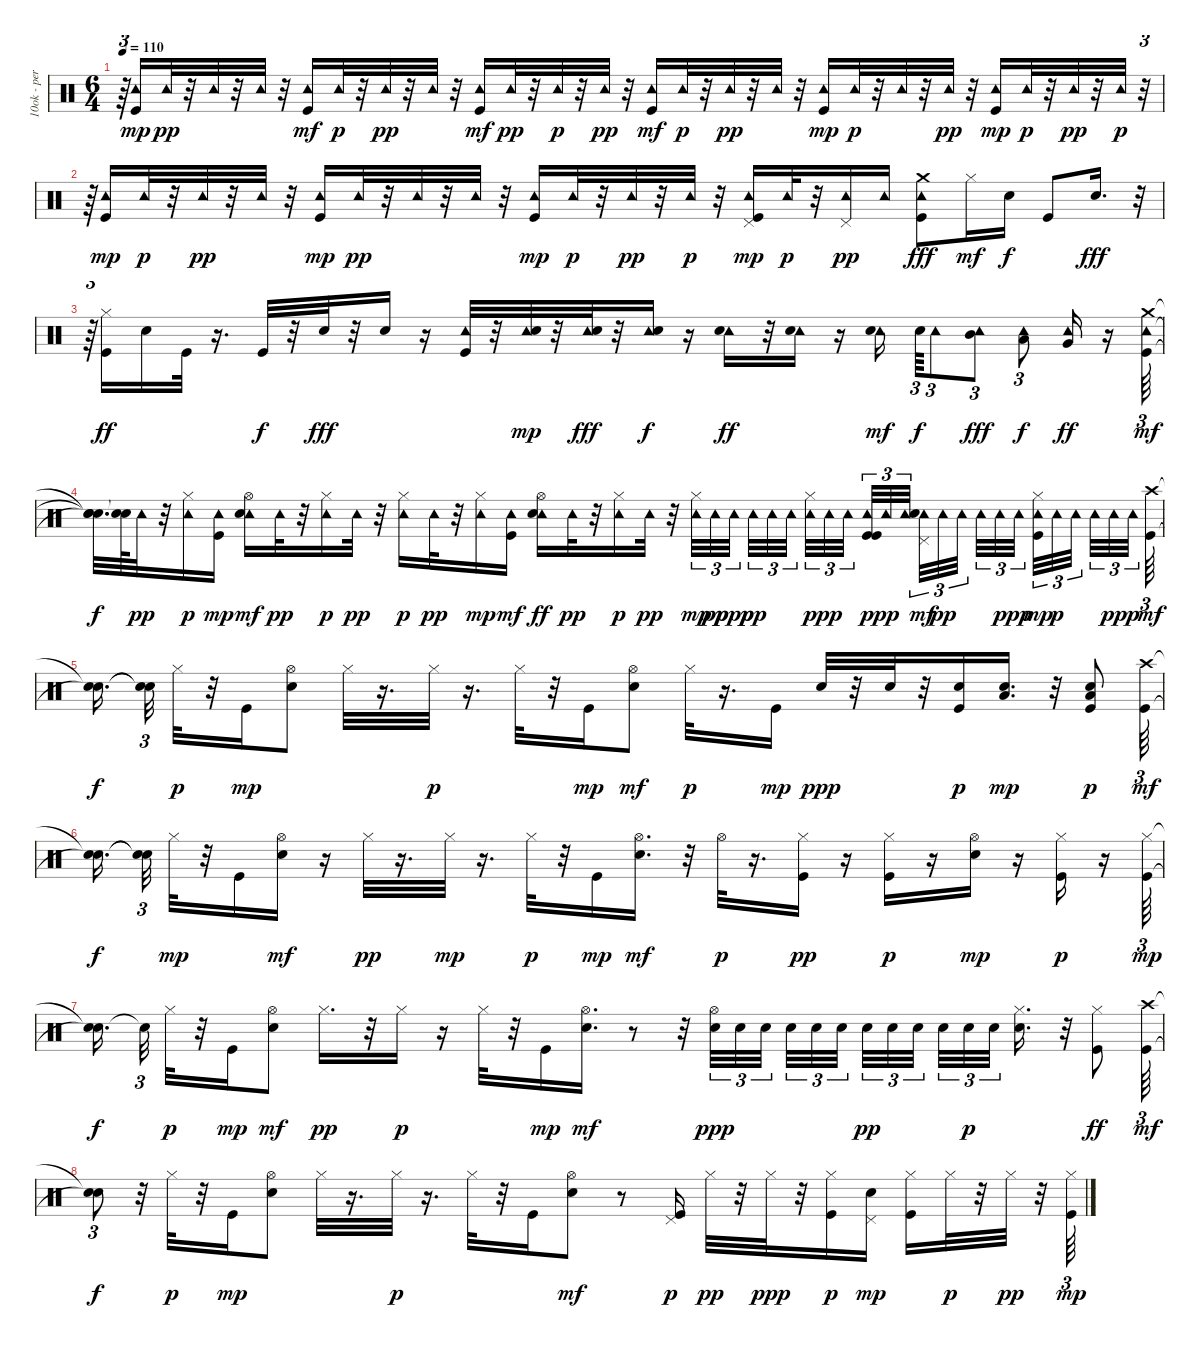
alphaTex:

\track ("10ok - percussioni" "10ok - per") {instrument percussion}
\staff {score}
\articulation defaults
\ts (6 4)
\tempo 110
\clef neutral
\ks c
r.64{tu (3 2) dy pp} ("Tambourine (hit)" "Kick (hit)").16{dy mp} "Tambourine (hit)".32{dy pp} r.32 "Tambourine (hit)".32 r.32 "Tambourine (hit)".32 r.32 ("Tambourine (hit)" "Kick (hit)").16{dy mf} "Tambourine (hit)".32{dy p} r.32 "Tambourine (hit)".32{dy pp} r.32 "Tambourine (hit)".32 r.32 ("Tambourine (hit)" "Kick (hit)").16{dy mf} "Tambourine (hit)".32{dy pp} r.32 "Tambourine (hit)".32{dy p} r.32 "Tambourine (hit)".32{dy pp} r.32 ("Tambourine (hit)" "Kick (hit)").16{dy mf} "Tambourine (hit)".32{dy p} r.32 "Tambourine (hit)".32{dy pp} r.32 "Tambourine (hit)".32 r.32 ("Tambourine (hit)" "Kick (hit)").16{dy mp} "Tambourine (hit)".32{dy p} r.32 "Tambourine (hit)".32 r.32 "Tambourine (hit)".32{dy pp} r.32 ("Tambourine (hit)" "Kick (hit)").16{dy mp} "Tambourine (hit)".32{dy p} r.32 "Tambourine (hit)".32{dy pp} r.32 "Tambourine (hit)".32{dy p} r.32{tu (3 2)} |
r.64{tu (3 2)} ("Tambourine (hit)" "Kick (hit)").16{dy mp} "Tambourine (hit)".32{dy p} r.32 "Tambourine (hit)".32{dy pp} r.32 "Tambourine (hit)".32 r.32 ("Tambourine (hit)" "Kick (hit)").16{dy mp} "Tambourine (hit)".32{dy pp} r.32 "Tambourine (hit)".32 r.32 "Tambourine (hit)".32 r.32 ("Tambourine (hit)" "Kick (hit)").16{dy mp} "Tambourine (hit)".32{dy p} r.32 "Tambourine (hit)".32{dy pp} r.32 "Tambourine (hit)".32{dy p} r.32 ("Pedal Hi-Hat (hit)" "Tambourine (hit)" "Kick (hit)").16{dy mp} "Tambourine (hit)".32{dy p} r.32 ("Pedal Hi-Hat (hit)" "Tambourine (hit)").16{dy pp} "Tambourine (hit)".16 ("Tambourine (hit)" "Kick (hit)" "Crash medium (hit)").8{dy fff} "Hi-Hat (closed)".16{dy mf} "Snare (hit) 2".16{dy f} "Kick (hit)".8 "Snare (hit) 2".16{d dy fff} r.32{tu (3 2)} |
r.64{tu (3 2)} ("Hi-Hat (closed)" "Kick (hit)").16{dy ff} "Snare (hit) 2".16 "Kick (hit)".32 r.16{d} "Kick (hit)".32{dy f} r.32 "Snare (hit) 2".32{dy fff} r.32 "Snare (hit) 2".16 r.16 ("Tambourine (hit)" "Kick (hit)").32 r.32 ("Tambourine (hit)" "Snare (hit) 2").32{dy mp} r.32 ("Tambourine (hit)" "Snare (hit) 2").32{dy fff} r.32 ("Tambourine (hit)" "Snare (hit) 2").16{dy f} r.16 ("Tambourine (hit)" "Snare (hit) 2").16{dy ff} r.32 ("Tambourine (hit)" "Snare (hit) 2").16 r.16 ("Tambourine (hit)" "Snare (hit) 2").16{dy mf beam splitsecondary} "Snare (hit) 2".64{tu (3 2) dy f} "Tambourine (hit)".8{tu (3 2)} ("Mid Tom (hit)" "Tambourine (hit)").8{tu (3 2) dy fff} ("Tambourine (hit)" "Low Tom (hit)").8{tu (3 2) dy f} ("Tambourine (hit)" "Very Low Tom (hit)").16{dy ff} r.16 ("Tambourine (hit)" "Kick (hit)" "Crash medium (hit)").64{tu (3 2) dy mf} |
("Snare (hit)"{t} "Snare (hit)"{t} "Snare (hit)"{t}).32{d dy f} ("Snare (hit)"{t} "Snare (hit)"{t}).64 "Tambourine (hit)".32{dy pp} r.32 ("Tambourine (hit)" "Hi-Hat (closed)").16{dy p} ("Tambourine (hit)" "Kick (hit)").16{dy mp} ("Tambourine (hit)" "Hi-Hat (open)" "Snare (hit) 2").16{dy mf} "Tambourine (hit)".32{dy pp} r.32 ("Tambourine (hit)" "Hi-Hat (closed)").16{dy p} "Tambourine (hit)".32{dy pp} r.32 ("Tambourine (hit)" "Hi-Hat (closed)").16{dy p} "Tambourine (hit)".32{dy pp} r.32 ("Tambourine (hit)" "Hi-Hat (closed)").16{dy mp} ("Tambourine (hit)" "Kick (hit)").16{dy mf} ("Tambourine (hit)" "Hi-Hat (open)" "Snare (hit) 2").16{dy ff} "Tambourine (hit)".32{dy pp} r.32 ("Tambourine (hit)" "Hi-Hat (closed)").16{dy p} "Tambourine (hit)".32{dy pp} r.32 ("Tambourine (hit)" "Hi-Hat (closed)").32{tu (3 2) dy mp} "Tambourine (hit)".32{tu (3 2) dy pp} "Tambourine (hit)".32{tu (3 2) dy ppp beam splitsecondary} "Tambourine (hit)".32{tu (3 2) dy pp} "Tambourine (hit)".32{tu (3 2)} "Tambourine (hit)".32{tu (3 2) beam splitsecondary} ("Tambourine (hit)" "Hi-Hat (closed)").32{tu (3 2) dy p} "Tambourine (hit)".32{tu (3 2) dy pp} "Tambourine (hit)".32{tu (3 2) beam splitsecondary} ("Tambourine (hit)" "Kick (hit)" "Kick (hit)").32{tu (3 2) dy p} "Tambourine (hit)".32{tu (3 2) dy pp} "Tambourine (hit)".32{tu (3 2) beam splitsecondary} ("Tambourine (hit)" "Pedal Hi-Hat (hit)" "Snare (hit) 2").32{tu (3 2) dy mf} "Tambourine (hit)".32{tu (3 2) dy pp} "Tambourine (hit)".32{tu (3 2) beam splitsecondary} "Tambourine (hit)".32{tu (3 2)} "Tambourine (hit)".32{tu (3 2) dy p} "Tambourine (hit)".32{tu (3 2) dy pp beam splitsecondary} ("Tambourine (hit)" "Hi-Hat (closed)" "Kick (hit)").32{tu (3 2) dy mp} "Tambourine (hit)".32{tu (3 2) dy p} "Tambourine (hit)".32{tu (3 2) beam splitsecondary} "Tambourine (hit)".32{tu (3 2)} "Tambourine (hit)".32{tu (3 2) dy pp} "Tambourine (hit)".32{tu (3 2) dy p} ("Crash high (hit)" "Kick (hit)").64{tu (3 2) dy mf} |
("Snare (hit)"{t} "Snare (hit)"{t}).16{d dy f beam splitsecondary} ("Snare (hit)"{t} "Snare (hit)"{t}).32{tu (3 2)} "Hi-Hat (closed)".32{dy p} r.32 "Kick (hit)".16{dy mp} ("Hi-Hat (open)" "Snare (hit) 2").8 "Hi-Hat (closed)".32 r.16{d} "Hi-Hat (closed)".32{dy p} r.16{d} "Hi-Hat (closed)".32 r.32 "Kick (hit)".16{dy mp} ("Hi-Hat (open)" "Snare (hit) 2").8{dy mf} "Hi-Hat (closed)".32{dy p} r.16{d} "Kick (hit)".16{dy mp} "Snare (hit) 2".32{dy ppp} r.32 "Snare (hit) 2".32 r.32 ("Snare (hit) 2" "Kick (hit)").16{dy p} ("Snare (hit) 2" "Low Tom (hit)").16{d dy mp} r.32 ("Snare (hit) 2" "Low Floor Tom (hit)" "Kick (hit)").8{dy p} ("Kick (hit)" "Crash high (hit)").64{tu (3 2) dy mf} |
("Snare (hit)"{t} "Snare (hit)"{t}).16{d dy f beam splitsecondary} ("Snare (hit)"{t} "Snare (hit)"{t}).32{tu (3 2)} "Hi-Hat (closed)".32{dy mp} r.32 "Kick (hit)".16 ("Snare (hit) 2" "Hi-Hat (open)").16{dy mf} r.16 "Hi-Hat (closed)".32{dy pp} r.16{d} "Hi-Hat (closed)".32{dy mp} r.16{d} "Hi-Hat (closed)".32{dy p} r.32 "Kick (hit)".16{dy mp} ("Hi-Hat (open)" "Snare (hit) 2").16{d dy mf} r.32 "Hi-Hat (open)".32{dy p} r.16{d} ("Hi-Hat (closed)" "Kick (hit)").16{dy pp} r.16 ("Hi-Hat (closed)" "Kick (hit)").16{dy p} r.16 ("Hi-Hat (open)" "Snare (hit) 2").16{dy mp} r.16 ("Hi-Hat (closed)" "Kick (hit)").16{dy p} r.16 ("Hi-Hat (closed)" "Kick (hit)").64{tu (3 2) dy mp} |
("Snare (hit)"{t} "Snare (hit)"{t}).16{d dy f beam splitsecondary} "Snare (hit)"{t}.32{tu (3 2)} "Hi-Hat (closed)".32{dy p} r.32 "Kick (hit)".16{dy mp} ("Hi-Hat (open)" "Snare (hit) 2").8{dy mf} "Hi-Hat (closed)".16{d dy pp} r.32 "Hi-Hat (closed)".16{dy p} r.16 "Hi-Hat (closed)".32 r.32 "Kick (hit)".16{dy mp} ("Hi-Hat (open)" "Snare (hit) 2").16{d dy mf} r.8 r.32 ("Hi-Hat (open)" "Snare (hit) 2").32{tu (3 2) dy ppp} "Snare (hit) 2".32{tu (3 2)} "Snare (hit) 2".32{tu (3 2) beam splitsecondary} "Snare (hit) 2".32{tu (3 2)} "Snare (hit) 2".32{tu (3 2)} "Snare (hit) 2".32{tu (3 2) beam splitsecondary} "Snare (hit) 2".32{tu (3 2) dy pp} "Snare (hit) 2".32{tu (3 2)} "Snare (hit) 2".32{tu (3 2) beam splitsecondary} "Snare (hit) 2".32{tu (3 2)} "Snare (hit) 2".32{tu (3 2) dy p} "Snare (hit) 2".32{tu (3 2) beam splitsecondary} ("Hi-Hat (closed)" "Snare (hit) 2").16{d} r.32 ("Hi-Hat (closed)" "Kick (hit)").8{dy ff} ("Kick (hit)" "Crash high (hit)").64{tu (3 2) dy mf} |
("Snare (hit)"{t} "Snare (hit)"{t}).8{tu (3 2) dy f} r.32 "Hi-Hat (closed)".32{dy p} r.32 "Kick (hit)".16{dy mp} ("Hi-Hat (open)" "Snare (hit) 2").8 "Hi-Hat (closed)".32 r.16{d} "Hi-Hat (closed)".32{dy p} r.16{d} "Hi-Hat (closed)".32 r.32 "Kick (hit)".16 ("Hi-Hat (open)" "Snare (hit) 2").8{dy mf} r.8 ("Pedal Hi-Hat (hit)" "Kick (hit)").16{dy p} "Hi-Hat (closed)".32{dy pp} r.32 "Hi-Hat (closed)".32{dy ppp} r.32 ("Hi-Hat (closed)" "Kick (hit)").16{dy p} ("Pedal Hi-Hat (hit)" "Snare (hit) 2").16{dy mp} ("Hi-Hat (closed)" "Kick (hit)").16 "Hi-Hat (closed)".32{dy p} r.32 "Hi-Hat (closed)".32{dy pp} r.32 ("Kick (hit)" "Hi-Hat (closed)").64{tu (3 2) dy mp}
